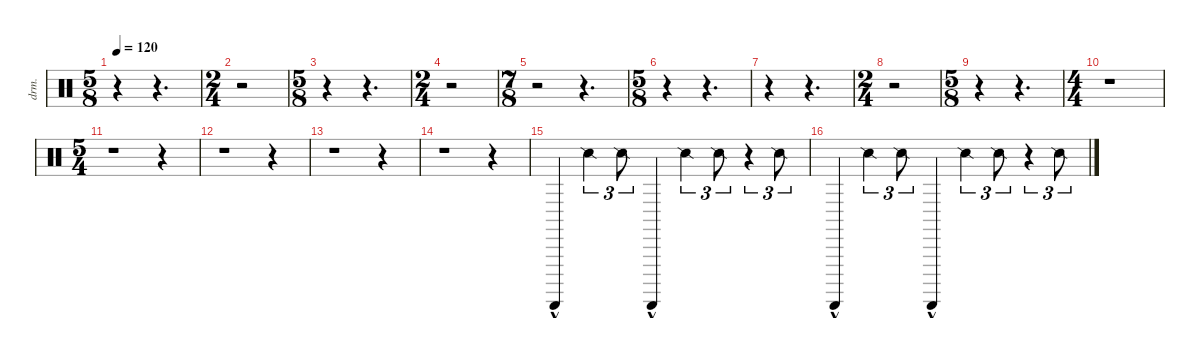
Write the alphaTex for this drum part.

\defaultSystemsLayout 4
\hideDynamics
\bracketExtendMode nobrackets
\otherSystemsTrackNameOrientation horizontal
\track ("Aux. Percussion" "drm.") {instrument percussion}
\staff {score}
\articulation defaults
\ts (5 8)
\tempo 120
\clef neutral
\ks c
r.4{dy mp beam Down} r.4{d beam Down} |
\ts (2 4)
\beaming (8 2 2)
r.2{beam Down} |
\ts (5 8)
\beaming (8 2 3)
r.4{beam Down} r.4{d beam Down} |
\ts (2 4)
\beaming (8 2 2)
r.2{beam Down} |
\ts (7 8)
\beaming (8 2 2 3)
r.2{beam Down} r.4{d beam Down} |
\ts (5 8)
\beaming (8 2 3)
r.4{beam Down} r.4{d beam Down} |
r.4{beam Down} r.4{d beam Down} |
\ts (2 4)
\beaming (8 2 2)
r.2{beam Down} |
\ts (5 8)
\beaming (8 2 3)
r.4{beam Down} r.4{d beam Down} |
\ts (4 4)
\beaming (8 4 4)
r.1{beam Down} |
\ts (5 4)
\beaming (8 4 4 2)
r.1{beam Down} r.4{beam Down} |
r.1{beam Down} r.4{beam Down} |
r.1{beam Down} r.4{beam Down} |
r.1{beam Down} r.4{beam Down} |
"Guiro (scrap-return)"{hac}.4{dy f beam Up} "Snare (side stick) 2".4{tu (3 2) dy mf beam Down} "Snare (side stick) 2".8{tu (3 2) beam Down} "Guiro (scrap-return)"{hac}.4{dy f beam Up} "Snare (side stick) 2".4{tu (3 2) dy mf beam Down} "Snare (side stick) 2".8{tu (3 2) beam Down} r.4{tu (3 2) beam Down} "Snare (side stick) 2".8{tu (3 2) beam Down} |
"Guiro (scrap-return)"{hac}.4{dy f beam Up} "Snare (side stick) 2".4{tu (3 2) dy mf beam Down} "Snare (side stick) 2".8{tu (3 2) beam Down} "Guiro (scrap-return)"{hac}.4{dy f beam Up} "Snare (side stick) 2".4{tu (3 2) dy mf beam Down} "Snare (side stick) 2".8{tu (3 2) beam Down} r.4{tu (3 2) beam Down} "Snare (side stick) 2".8{tu (3 2) beam Down}
